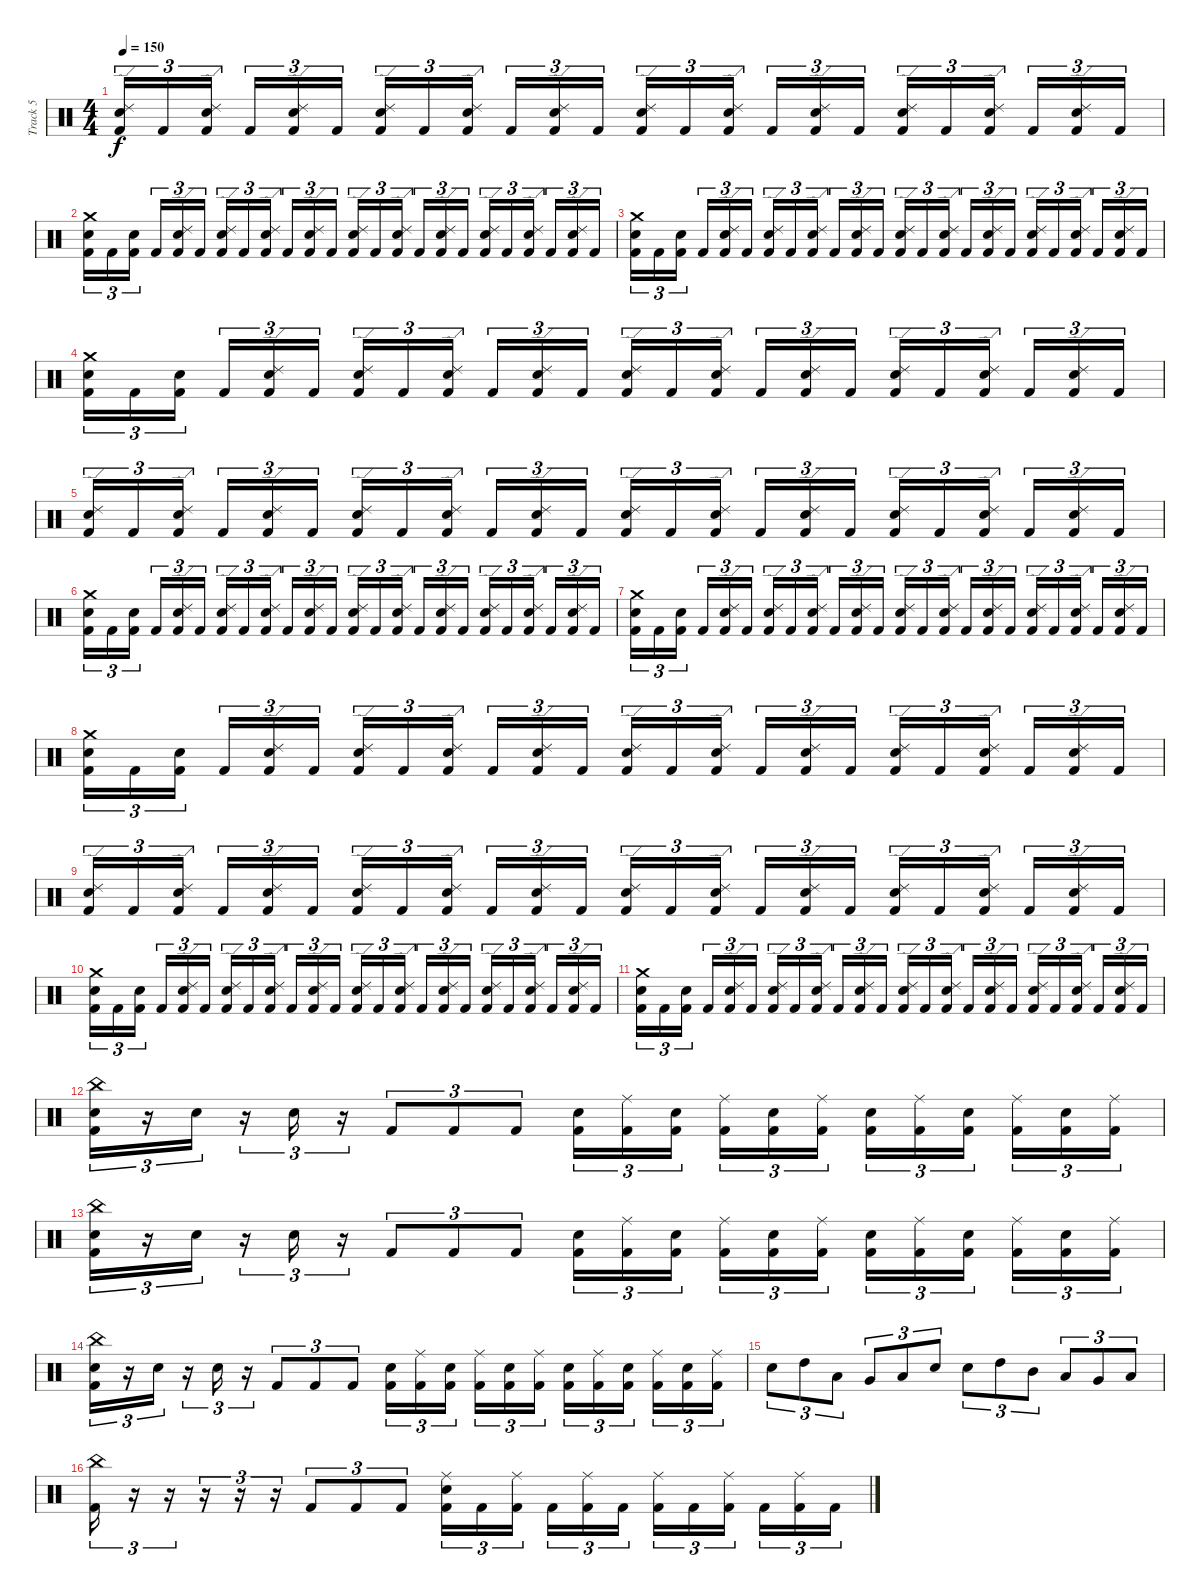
\track ("Track 5" "Track 5") {instrument percussion}
\staff {score}
\articulation defaults
\ts (4 4)
\tempo 150
\clef neutral
\ks c
("Ride (edge) 2" "Electric Snare (hit)" "Kick (hit) 2").16{tu (3 2) dy f} "Kick (hit) 2".16{tu (3 2)} ("Ride (edge) 2" "Electric Snare (hit)" "Kick (hit) 2").16{tu (3 2)} "Kick (hit) 2".16{tu (3 2)} ("Ride (edge) 2" "Electric Snare (hit)" "Kick (hit) 2").16{tu (3 2)} "Kick (hit) 2".16{tu (3 2)} ("Ride (edge) 2" "Electric Snare (hit)" "Kick (hit) 2").16{tu (3 2)} "Kick (hit) 2".16{tu (3 2)} ("Ride (edge) 2" "Electric Snare (hit)" "Kick (hit) 2").16{tu (3 2)} "Kick (hit) 2".16{tu (3 2)} ("Ride (edge) 2" "Electric Snare (hit)" "Kick (hit) 2").16{tu (3 2)} "Kick (hit) 2".16{tu (3 2)} ("Ride (edge) 2" "Electric Snare (hit)" "Kick (hit) 2").16{tu (3 2)} "Kick (hit) 2".16{tu (3 2)} ("Ride (edge) 2" "Electric Snare (hit)" "Kick (hit) 2").16{tu (3 2)} "Kick (hit) 2".16{tu (3 2)} ("Ride (edge) 2" "Electric Snare (hit)" "Kick (hit) 2").16{tu (3 2)} "Kick (hit) 2".16{tu (3 2)} ("Ride (edge) 2" "Electric Snare (hit)" "Kick (hit) 2").16{tu (3 2)} "Kick (hit) 2".16{tu (3 2)} ("Ride (edge) 2" "Electric Snare (hit)" "Kick (hit) 2").16{tu (3 2)} "Kick (hit) 2".16{tu (3 2)} ("Ride (edge) 2" "Electric Snare (hit)" "Kick (hit) 2").16{tu (3 2)} "Kick (hit) 2".16{tu (3 2)} |
("Crash medium (hit)" "Electric Snare (hit)" "Kick (hit) 2").16{tu (3 2)} "Kick (hit) 2".16{tu (3 2)} ("Electric Snare (hit)" "Kick (hit) 2").16{tu (3 2)} "Kick (hit) 2".16{tu (3 2)} ("Ride (edge) 2" "Electric Snare (hit)" "Kick (hit) 2").16{tu (3 2)} "Kick (hit) 2".16{tu (3 2)} ("Ride (edge) 2" "Electric Snare (hit)" "Kick (hit) 2").16{tu (3 2)} "Kick (hit) 2".16{tu (3 2)} ("Ride (edge) 2" "Electric Snare (hit)" "Kick (hit) 2").16{tu (3 2)} "Kick (hit) 2".16{tu (3 2)} ("Ride (edge) 2" "Electric Snare (hit)" "Kick (hit) 2").16{tu (3 2)} "Kick (hit) 2".16{tu (3 2)} ("Ride (edge) 2" "Electric Snare (hit)" "Kick (hit) 2").16{tu (3 2)} "Kick (hit) 2".16{tu (3 2)} ("Ride (edge) 2" "Electric Snare (hit)" "Kick (hit) 2").16{tu (3 2)} "Kick (hit) 2".16{tu (3 2)} ("Ride (edge) 2" "Electric Snare (hit)" "Kick (hit) 2").16{tu (3 2)} "Kick (hit) 2".16{tu (3 2)} ("Ride (edge) 2" "Electric Snare (hit)" "Kick (hit) 2").16{tu (3 2)} "Kick (hit) 2".16{tu (3 2)} ("Ride (edge) 2" "Electric Snare (hit)" "Kick (hit) 2").16{tu (3 2)} "Kick (hit) 2".16{tu (3 2)} ("Ride (edge) 2" "Electric Snare (hit)" "Kick (hit) 2").16{tu (3 2)} "Kick (hit) 2".16{tu (3 2)} |
("Crash medium (hit)" "Electric Snare (hit)" "Kick (hit) 2").16{tu (3 2)} "Kick (hit) 2".16{tu (3 2)} ("Electric Snare (hit)" "Kick (hit) 2").16{tu (3 2)} "Kick (hit) 2".16{tu (3 2)} ("Ride (edge) 2" "Electric Snare (hit)" "Kick (hit) 2").16{tu (3 2)} "Kick (hit) 2".16{tu (3 2)} ("Ride (edge) 2" "Electric Snare (hit)" "Kick (hit) 2").16{tu (3 2)} "Kick (hit) 2".16{tu (3 2)} ("Ride (edge) 2" "Electric Snare (hit)" "Kick (hit) 2").16{tu (3 2)} "Kick (hit) 2".16{tu (3 2)} ("Ride (edge) 2" "Electric Snare (hit)" "Kick (hit) 2").16{tu (3 2)} "Kick (hit) 2".16{tu (3 2)} ("Ride (edge) 2" "Electric Snare (hit)" "Kick (hit) 2").16{tu (3 2)} "Kick (hit) 2".16{tu (3 2)} ("Ride (edge) 2" "Electric Snare (hit)" "Kick (hit) 2").16{tu (3 2)} "Kick (hit) 2".16{tu (3 2)} ("Ride (edge) 2" "Electric Snare (hit)" "Kick (hit) 2").16{tu (3 2)} "Kick (hit) 2".16{tu (3 2)} ("Ride (edge) 2" "Electric Snare (hit)" "Kick (hit) 2").16{tu (3 2)} "Kick (hit) 2".16{tu (3 2)} ("Ride (edge) 2" "Electric Snare (hit)" "Kick (hit) 2").16{tu (3 2)} "Kick (hit) 2".16{tu (3 2)} ("Ride (edge) 2" "Electric Snare (hit)" "Kick (hit) 2").16{tu (3 2)} "Kick (hit) 2".16{tu (3 2)} |
("Crash medium (hit)" "Electric Snare (hit)" "Kick (hit) 2").16{tu (3 2)} "Kick (hit) 2".16{tu (3 2)} ("Electric Snare (hit)" "Kick (hit) 2").16{tu (3 2)} "Kick (hit) 2".16{tu (3 2)} ("Ride (edge) 2" "Electric Snare (hit)" "Kick (hit) 2").16{tu (3 2)} "Kick (hit) 2".16{tu (3 2)} ("Ride (edge) 2" "Electric Snare (hit)" "Kick (hit) 2").16{tu (3 2)} "Kick (hit) 2".16{tu (3 2)} ("Ride (edge) 2" "Electric Snare (hit)" "Kick (hit) 2").16{tu (3 2)} "Kick (hit) 2".16{tu (3 2)} ("Ride (edge) 2" "Electric Snare (hit)" "Kick (hit) 2").16{tu (3 2)} "Kick (hit) 2".16{tu (3 2)} ("Ride (edge) 2" "Electric Snare (hit)" "Kick (hit) 2").16{tu (3 2)} "Kick (hit) 2".16{tu (3 2)} ("Ride (edge) 2" "Electric Snare (hit)" "Kick (hit) 2").16{tu (3 2)} "Kick (hit) 2".16{tu (3 2)} ("Ride (edge) 2" "Electric Snare (hit)" "Kick (hit) 2").16{tu (3 2)} "Kick (hit) 2".16{tu (3 2)} ("Ride (edge) 2" "Electric Snare (hit)" "Kick (hit) 2").16{tu (3 2)} "Kick (hit) 2".16{tu (3 2)} ("Ride (edge) 2" "Electric Snare (hit)" "Kick (hit) 2").16{tu (3 2)} "Kick (hit) 2".16{tu (3 2)} ("Ride (edge) 2" "Electric Snare (hit)" "Kick (hit) 2").16{tu (3 2)} "Kick (hit) 2".16{tu (3 2)} |
("Ride (edge) 2" "Electric Snare (hit)" "Kick (hit) 2").16{tu (3 2)} "Kick (hit) 2".16{tu (3 2)} ("Ride (edge) 2" "Electric Snare (hit)" "Kick (hit) 2").16{tu (3 2)} "Kick (hit) 2".16{tu (3 2)} ("Ride (edge) 2" "Electric Snare (hit)" "Kick (hit) 2").16{tu (3 2)} "Kick (hit) 2".16{tu (3 2)} ("Ride (edge) 2" "Electric Snare (hit)" "Kick (hit) 2").16{tu (3 2)} "Kick (hit) 2".16{tu (3 2)} ("Ride (edge) 2" "Electric Snare (hit)" "Kick (hit) 2").16{tu (3 2)} "Kick (hit) 2".16{tu (3 2)} ("Ride (edge) 2" "Electric Snare (hit)" "Kick (hit) 2").16{tu (3 2)} "Kick (hit) 2".16{tu (3 2)} ("Ride (edge) 2" "Electric Snare (hit)" "Kick (hit) 2").16{tu (3 2)} "Kick (hit) 2".16{tu (3 2)} ("Ride (edge) 2" "Electric Snare (hit)" "Kick (hit) 2").16{tu (3 2)} "Kick (hit) 2".16{tu (3 2)} ("Ride (edge) 2" "Electric Snare (hit)" "Kick (hit) 2").16{tu (3 2)} "Kick (hit) 2".16{tu (3 2)} ("Ride (edge) 2" "Electric Snare (hit)" "Kick (hit) 2").16{tu (3 2)} "Kick (hit) 2".16{tu (3 2)} ("Ride (edge) 2" "Electric Snare (hit)" "Kick (hit) 2").16{tu (3 2)} "Kick (hit) 2".16{tu (3 2)} ("Ride (edge) 2" "Electric Snare (hit)" "Kick (hit) 2").16{tu (3 2)} "Kick (hit) 2".16{tu (3 2)} |
("Crash medium (hit)" "Electric Snare (hit)" "Kick (hit) 2").16{tu (3 2)} "Kick (hit) 2".16{tu (3 2)} ("Electric Snare (hit)" "Kick (hit) 2").16{tu (3 2)} "Kick (hit) 2".16{tu (3 2)} ("Ride (edge) 2" "Electric Snare (hit)" "Kick (hit) 2").16{tu (3 2)} "Kick (hit) 2".16{tu (3 2)} ("Ride (edge) 2" "Electric Snare (hit)" "Kick (hit) 2").16{tu (3 2)} "Kick (hit) 2".16{tu (3 2)} ("Ride (edge) 2" "Electric Snare (hit)" "Kick (hit) 2").16{tu (3 2)} "Kick (hit) 2".16{tu (3 2)} ("Ride (edge) 2" "Electric Snare (hit)" "Kick (hit) 2").16{tu (3 2)} "Kick (hit) 2".16{tu (3 2)} ("Ride (edge) 2" "Electric Snare (hit)" "Kick (hit) 2").16{tu (3 2)} "Kick (hit) 2".16{tu (3 2)} ("Ride (edge) 2" "Electric Snare (hit)" "Kick (hit) 2").16{tu (3 2)} "Kick (hit) 2".16{tu (3 2)} ("Ride (edge) 2" "Electric Snare (hit)" "Kick (hit) 2").16{tu (3 2)} "Kick (hit) 2".16{tu (3 2)} ("Ride (edge) 2" "Electric Snare (hit)" "Kick (hit) 2").16{tu (3 2)} "Kick (hit) 2".16{tu (3 2)} ("Ride (edge) 2" "Electric Snare (hit)" "Kick (hit) 2").16{tu (3 2)} "Kick (hit) 2".16{tu (3 2)} ("Ride (edge) 2" "Electric Snare (hit)" "Kick (hit) 2").16{tu (3 2)} "Kick (hit) 2".16{tu (3 2)} |
("Crash medium (hit)" "Electric Snare (hit)" "Kick (hit) 2").16{tu (3 2)} "Kick (hit) 2".16{tu (3 2)} ("Electric Snare (hit)" "Kick (hit) 2").16{tu (3 2)} "Kick (hit) 2".16{tu (3 2)} ("Ride (edge) 2" "Electric Snare (hit)" "Kick (hit) 2").16{tu (3 2)} "Kick (hit) 2".16{tu (3 2)} ("Ride (edge) 2" "Electric Snare (hit)" "Kick (hit) 2").16{tu (3 2)} "Kick (hit) 2".16{tu (3 2)} ("Ride (edge) 2" "Electric Snare (hit)" "Kick (hit) 2").16{tu (3 2)} "Kick (hit) 2".16{tu (3 2)} ("Ride (edge) 2" "Electric Snare (hit)" "Kick (hit) 2").16{tu (3 2)} "Kick (hit) 2".16{tu (3 2)} ("Ride (edge) 2" "Electric Snare (hit)" "Kick (hit) 2").16{tu (3 2)} "Kick (hit) 2".16{tu (3 2)} ("Ride (edge) 2" "Electric Snare (hit)" "Kick (hit) 2").16{tu (3 2)} "Kick (hit) 2".16{tu (3 2)} ("Ride (edge) 2" "Electric Snare (hit)" "Kick (hit) 2").16{tu (3 2)} "Kick (hit) 2".16{tu (3 2)} ("Ride (edge) 2" "Electric Snare (hit)" "Kick (hit) 2").16{tu (3 2)} "Kick (hit) 2".16{tu (3 2)} ("Ride (edge) 2" "Electric Snare (hit)" "Kick (hit) 2").16{tu (3 2)} "Kick (hit) 2".16{tu (3 2)} ("Ride (edge) 2" "Electric Snare (hit)" "Kick (hit) 2").16{tu (3 2)} "Kick (hit) 2".16{tu (3 2)} |
("Crash medium (hit)" "Electric Snare (hit)" "Kick (hit) 2").16{tu (3 2)} "Kick (hit) 2".16{tu (3 2)} ("Electric Snare (hit)" "Kick (hit) 2").16{tu (3 2)} "Kick (hit) 2".16{tu (3 2)} ("Ride (edge) 2" "Electric Snare (hit)" "Kick (hit) 2").16{tu (3 2)} "Kick (hit) 2".16{tu (3 2)} ("Ride (edge) 2" "Electric Snare (hit)" "Kick (hit) 2").16{tu (3 2)} "Kick (hit) 2".16{tu (3 2)} ("Ride (edge) 2" "Electric Snare (hit)" "Kick (hit) 2").16{tu (3 2)} "Kick (hit) 2".16{tu (3 2)} ("Ride (edge) 2" "Electric Snare (hit)" "Kick (hit) 2").16{tu (3 2)} "Kick (hit) 2".16{tu (3 2)} ("Ride (edge) 2" "Electric Snare (hit)" "Kick (hit) 2").16{tu (3 2)} "Kick (hit) 2".16{tu (3 2)} ("Ride (edge) 2" "Electric Snare (hit)" "Kick (hit) 2").16{tu (3 2)} "Kick (hit) 2".16{tu (3 2)} ("Ride (edge) 2" "Electric Snare (hit)" "Kick (hit) 2").16{tu (3 2)} "Kick (hit) 2".16{tu (3 2)} ("Ride (edge) 2" "Electric Snare (hit)" "Kick (hit) 2").16{tu (3 2)} "Kick (hit) 2".16{tu (3 2)} ("Ride (edge) 2" "Electric Snare (hit)" "Kick (hit) 2").16{tu (3 2)} "Kick (hit) 2".16{tu (3 2)} ("Ride (edge) 2" "Electric Snare (hit)" "Kick (hit) 2").16{tu (3 2)} "Kick (hit) 2".16{tu (3 2)} |
("Ride (edge) 2" "Electric Snare (hit)" "Kick (hit) 2").16{tu (3 2)} "Kick (hit) 2".16{tu (3 2)} ("Ride (edge) 2" "Electric Snare (hit)" "Kick (hit) 2").16{tu (3 2)} "Kick (hit) 2".16{tu (3 2)} ("Ride (edge) 2" "Electric Snare (hit)" "Kick (hit) 2").16{tu (3 2)} "Kick (hit) 2".16{tu (3 2)} ("Ride (edge) 2" "Electric Snare (hit)" "Kick (hit) 2").16{tu (3 2)} "Kick (hit) 2".16{tu (3 2)} ("Ride (edge) 2" "Electric Snare (hit)" "Kick (hit) 2").16{tu (3 2)} "Kick (hit) 2".16{tu (3 2)} ("Ride (edge) 2" "Electric Snare (hit)" "Kick (hit) 2").16{tu (3 2)} "Kick (hit) 2".16{tu (3 2)} ("Ride (edge) 2" "Electric Snare (hit)" "Kick (hit) 2").16{tu (3 2)} "Kick (hit) 2".16{tu (3 2)} ("Ride (edge) 2" "Electric Snare (hit)" "Kick (hit) 2").16{tu (3 2)} "Kick (hit) 2".16{tu (3 2)} ("Ride (edge) 2" "Electric Snare (hit)" "Kick (hit) 2").16{tu (3 2)} "Kick (hit) 2".16{tu (3 2)} ("Ride (edge) 2" "Electric Snare (hit)" "Kick (hit) 2").16{tu (3 2)} "Kick (hit) 2".16{tu (3 2)} ("Ride (edge) 2" "Electric Snare (hit)" "Kick (hit) 2").16{tu (3 2)} "Kick (hit) 2".16{tu (3 2)} ("Ride (edge) 2" "Electric Snare (hit)" "Kick (hit) 2").16{tu (3 2)} "Kick (hit) 2".16{tu (3 2)} |
("Crash medium (hit)" "Electric Snare (hit)" "Kick (hit) 2").16{tu (3 2)} "Kick (hit) 2".16{tu (3 2)} ("Electric Snare (hit)" "Kick (hit) 2").16{tu (3 2)} "Kick (hit) 2".16{tu (3 2)} ("Ride (edge) 2" "Electric Snare (hit)" "Kick (hit) 2").16{tu (3 2)} "Kick (hit) 2".16{tu (3 2)} ("Ride (edge) 2" "Electric Snare (hit)" "Kick (hit) 2").16{tu (3 2)} "Kick (hit) 2".16{tu (3 2)} ("Ride (edge) 2" "Electric Snare (hit)" "Kick (hit) 2").16{tu (3 2)} "Kick (hit) 2".16{tu (3 2)} ("Ride (edge) 2" "Electric Snare (hit)" "Kick (hit) 2").16{tu (3 2)} "Kick (hit) 2".16{tu (3 2)} ("Ride (edge) 2" "Electric Snare (hit)" "Kick (hit) 2").16{tu (3 2)} "Kick (hit) 2".16{tu (3 2)} ("Ride (edge) 2" "Electric Snare (hit)" "Kick (hit) 2").16{tu (3 2)} "Kick (hit) 2".16{tu (3 2)} ("Ride (edge) 2" "Electric Snare (hit)" "Kick (hit) 2").16{tu (3 2)} "Kick (hit) 2".16{tu (3 2)} ("Ride (edge) 2" "Electric Snare (hit)" "Kick (hit) 2").16{tu (3 2)} "Kick (hit) 2".16{tu (3 2)} ("Ride (edge) 2" "Electric Snare (hit)" "Kick (hit) 2").16{tu (3 2)} "Kick (hit) 2".16{tu (3 2)} ("Ride (edge) 2" "Electric Snare (hit)" "Kick (hit) 2").16{tu (3 2)} "Kick (hit) 2".16{tu (3 2)} |
("Crash medium (hit)" "Electric Snare (hit)" "Kick (hit) 2").16{tu (3 2)} "Kick (hit) 2".16{tu (3 2)} ("Electric Snare (hit)" "Kick (hit) 2").16{tu (3 2)} "Kick (hit) 2".16{tu (3 2)} ("Ride (edge) 2" "Electric Snare (hit)" "Kick (hit) 2").16{tu (3 2)} "Kick (hit) 2".16{tu (3 2)} ("Ride (edge) 2" "Electric Snare (hit)" "Kick (hit) 2").16{tu (3 2)} "Kick (hit) 2".16{tu (3 2)} ("Ride (edge) 2" "Electric Snare (hit)" "Kick (hit) 2").16{tu (3 2)} "Kick (hit) 2".16{tu (3 2)} ("Ride (edge) 2" "Electric Snare (hit)" "Kick (hit) 2").16{tu (3 2)} "Kick (hit) 2".16{tu (3 2)} ("Ride (edge) 2" "Electric Snare (hit)" "Kick (hit) 2").16{tu (3 2)} "Kick (hit) 2".16{tu (3 2)} ("Ride (edge) 2" "Electric Snare (hit)" "Kick (hit) 2").16{tu (3 2)} "Kick (hit) 2".16{tu (3 2)} ("Ride (edge) 2" "Electric Snare (hit)" "Kick (hit) 2").16{tu (3 2)} "Kick (hit) 2".16{tu (3 2)} ("Ride (edge) 2" "Electric Snare (hit)" "Kick (hit) 2").16{tu (3 2)} "Kick (hit) 2".16{tu (3 2)} ("Ride (edge) 2" "Electric Snare (hit)" "Kick (hit) 2").16{tu (3 2)} "Kick (hit) 2".16{tu (3 2)} ("Ride (edge) 2" "Electric Snare (hit)" "Kick (hit) 2").16{tu (3 2)} "Kick (hit) 2".16{tu (3 2)} |
("China (hit)" "Electric Snare (hit)" "Kick (hit) 2").16{tu (3 2)} r.16{tu (3 2)} "Electric Snare (hit)".16{tu (3 2)} r.16{tu (3 2)} "Electric Snare (hit)".16{tu (3 2)} r.16{tu (3 2)} "Kick (hit) 2".8{tu (3 2)} "Kick (hit) 2".8{tu (3 2)} "Kick (hit) 2".8{tu (3 2)} ("Electric Snare (hit)" "Kick (hit) 2").16{tu (3 2)} ("Ride (middle)" "Kick (hit) 2").16{tu (3 2)} ("Electric Snare (hit)" "Kick (hit) 2").16{tu (3 2)} ("Ride (middle)" "Kick (hit) 2").16{tu (3 2)} ("Electric Snare (hit)" "Kick (hit) 2").16{tu (3 2)} ("Ride (middle)" "Kick (hit) 2").16{tu (3 2)} ("Electric Snare (hit)" "Kick (hit) 2").16{tu (3 2)} ("Ride (middle)" "Kick (hit) 2").16{tu (3 2)} ("Electric Snare (hit)" "Kick (hit) 2").16{tu (3 2)} ("Ride (middle)" "Kick (hit) 2").16{tu (3 2)} ("Electric Snare (hit)" "Kick (hit) 2").16{tu (3 2)} ("Ride (middle)" "Kick (hit) 2").16{tu (3 2)} |
("China (hit)" "Electric Snare (hit)" "Kick (hit) 2").16{tu (3 2)} r.16{tu (3 2)} "Electric Snare (hit)".16{tu (3 2)} r.16{tu (3 2)} "Electric Snare (hit)".16{tu (3 2)} r.16{tu (3 2)} "Kick (hit) 2".8{tu (3 2)} "Kick (hit) 2".8{tu (3 2)} "Kick (hit) 2".8{tu (3 2)} ("Electric Snare (hit)" "Kick (hit) 2").16{tu (3 2)} ("Ride (middle)" "Kick (hit) 2").16{tu (3 2)} ("Electric Snare (hit)" "Kick (hit) 2").16{tu (3 2)} ("Ride (middle)" "Kick (hit) 2").16{tu (3 2)} ("Electric Snare (hit)" "Kick (hit) 2").16{tu (3 2)} ("Ride (middle)" "Kick (hit) 2").16{tu (3 2)} ("Electric Snare (hit)" "Kick (hit) 2").16{tu (3 2)} ("Ride (middle)" "Kick (hit) 2").16{tu (3 2)} ("Electric Snare (hit)" "Kick (hit) 2").16{tu (3 2)} ("Ride (middle)" "Kick (hit) 2").16{tu (3 2)} ("Electric Snare (hit)" "Kick (hit) 2").16{tu (3 2)} ("Ride (middle)" "Kick (hit) 2").16{tu (3 2)} |
("China (hit)" "Electric Snare (hit)" "Kick (hit) 2").16{tu (3 2)} r.16{tu (3 2)} "Electric Snare (hit)".16{tu (3 2)} r.16{tu (3 2)} "Electric Snare (hit)".16{tu (3 2)} r.16{tu (3 2)} "Kick (hit) 2".8{tu (3 2)} "Kick (hit) 2".8{tu (3 2)} "Kick (hit) 2".8{tu (3 2)} ("Electric Snare (hit)" "Kick (hit) 2").16{tu (3 2)} ("Ride (middle)" "Kick (hit) 2").16{tu (3 2)} ("Electric Snare (hit)" "Kick (hit) 2").16{tu (3 2)} ("Ride (middle)" "Kick (hit) 2").16{tu (3 2)} ("Electric Snare (hit)" "Kick (hit) 2").16{tu (3 2)} ("Ride (middle)" "Kick (hit) 2").16{tu (3 2)} ("Electric Snare (hit)" "Kick (hit) 2").16{tu (3 2)} ("Ride (middle)" "Kick (hit) 2").16{tu (3 2)} ("Electric Snare (hit)" "Kick (hit) 2").16{tu (3 2)} ("Ride (middle)" "Kick (hit) 2").16{tu (3 2)} ("Electric Snare (hit)" "Kick (hit) 2").16{tu (3 2)} ("Ride (middle)" "Kick (hit) 2").16{tu (3 2)} |
"Electric Snare (hit)".8{tu (3 2)} "High Tom (hit)".8{tu (3 2)} "Low Tom (hit)".8{tu (3 2)} "Very Low Tom (hit)".8{tu (3 2)} "Low Floor Tom (hit)".8{tu (3 2)} "Electric Snare (hit)".8{tu (3 2)} "Electric Snare (hit)".8{tu (3 2)} "High Tom (hit)".8{tu (3 2)} "Mid Tom (hit)".8{tu (3 2)} "Low Tom (hit)".8{tu (3 2)} "Very Low Tom (hit)".8{tu (3 2)} "Low Floor Tom (hit)".8{tu (3 2)} |
("China (hit)" "Kick (hit) 2").16{tu (3 2)} r.16{tu (3 2)} r.16{tu (3 2)} r.16{tu (3 2)} r.16{tu (3 2)} r.16{tu (3 2)} "Kick (hit) 2".8{tu (3 2)} "Kick (hit) 2".8{tu (3 2)} "Kick (hit) 2".8{tu (3 2)} ("Ride (middle)" "Electric Snare (hit)" "Kick (hit) 2").16{tu (3 2)} "Kick (hit) 2".16{tu (3 2)} ("Ride (middle)" "Kick (hit) 2").16{tu (3 2)} "Kick (hit) 2".16{tu (3 2)} ("Ride (middle)" "Kick (hit) 2").16{tu (3 2)} "Kick (hit) 2".16{tu (3 2)} ("Ride (middle)" "Kick (hit) 2").16{tu (3 2)} "Kick (hit) 2".16{tu (3 2)} ("Ride (middle)" "Kick (hit) 2").16{tu (3 2)} "Kick (hit) 2".16{tu (3 2)} ("Ride (middle)" "Kick (hit) 2").16{tu (3 2)} "Kick (hit) 2".16{tu (3 2)}
